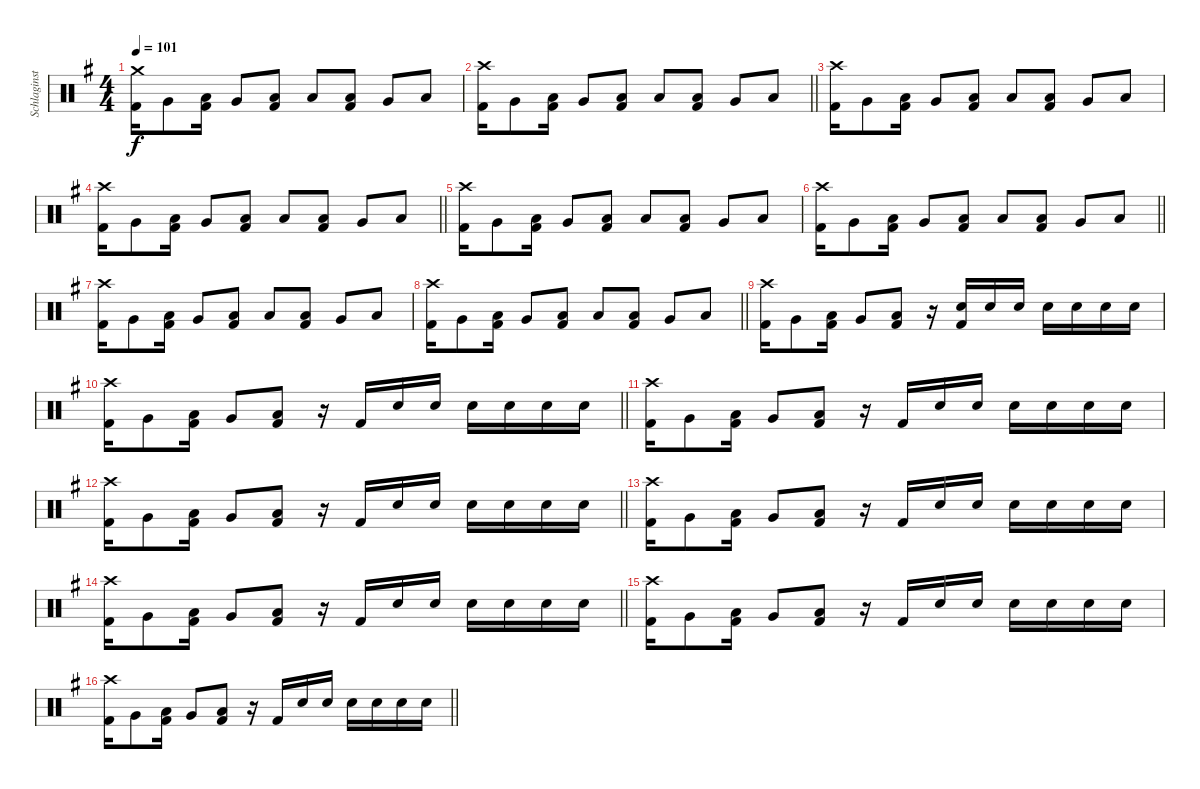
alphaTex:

\track ("Schlaginstrumente - Auswahl" "Schlaginst") {instrument percussion}
\staff {score}
\articulation defaults
\ts (4 4)
\tempo 101
\clef neutral
\ks g
("Crash medium (hit)" "Kick (hit) 2").16{dy f} "Very Low Tom (hit)".8 ("Low Floor Tom (hit)" "Kick (hit) 2").16 "Very Low Tom (hit)".8 ("Low Floor Tom (hit)" "Kick (hit) 2").8 "Low Floor Tom (hit)".8 ("Low Floor Tom (hit)" "Kick (hit) 2").8 "Very Low Tom (hit)".8 "Low Floor Tom (hit)".8 |
\barLineRight lightlight
("Crash high (hit)" "Kick (hit) 2").16 "Very Low Tom (hit)".8 ("Low Floor Tom (hit)" "Kick (hit) 2").16 "Very Low Tom (hit)".8 ("Low Floor Tom (hit)" "Kick (hit) 2").8 "Low Floor Tom (hit)".8 ("Low Floor Tom (hit)" "Kick (hit) 2").8 "Very Low Tom (hit)".8 "Low Floor Tom (hit)".8 |
("Crash high (hit)" "Kick (hit) 2").16 "Very Low Tom (hit)".8 ("Low Floor Tom (hit)" "Kick (hit) 2").16 "Very Low Tom (hit)".8 ("Low Floor Tom (hit)" "Kick (hit) 2").8 "Low Floor Tom (hit)".8 ("Low Floor Tom (hit)" "Kick (hit) 2").8 "Very Low Tom (hit)".8 "Low Floor Tom (hit)".8 |
\barLineRight lightlight
("Crash high (hit)" "Kick (hit) 2").16 "Very Low Tom (hit)".8 ("Low Floor Tom (hit)" "Kick (hit) 2").16 "Very Low Tom (hit)".8 ("Low Floor Tom (hit)" "Kick (hit) 2").8 "Low Floor Tom (hit)".8 ("Low Floor Tom (hit)" "Kick (hit) 2").8 "Very Low Tom (hit)".8 "Low Floor Tom (hit)".8 |
("Crash high (hit)" "Kick (hit) 2").16 "Very Low Tom (hit)".8 ("Low Floor Tom (hit)" "Kick (hit) 2").16 "Very Low Tom (hit)".8 ("Low Floor Tom (hit)" "Kick (hit) 2").8 "Low Floor Tom (hit)".8 ("Low Floor Tom (hit)" "Kick (hit) 2").8 "Very Low Tom (hit)".8 "Low Floor Tom (hit)".8 |
\barLineRight lightlight
("Crash high (hit)" "Kick (hit) 2").16 "Very Low Tom (hit)".8 ("Low Floor Tom (hit)" "Kick (hit) 2").16 "Very Low Tom (hit)".8 ("Low Floor Tom (hit)" "Kick (hit) 2").8 "Low Floor Tom (hit)".8 ("Low Floor Tom (hit)" "Kick (hit) 2").8 "Very Low Tom (hit)".8 "Low Floor Tom (hit)".8 |
("Crash high (hit)" "Kick (hit) 2").16 "Very Low Tom (hit)".8 ("Low Floor Tom (hit)" "Kick (hit) 2").16 "Very Low Tom (hit)".8 ("Low Floor Tom (hit)" "Kick (hit) 2").8 "Low Floor Tom (hit)".8 ("Low Floor Tom (hit)" "Kick (hit) 2").8 "Very Low Tom (hit)".8 "Low Floor Tom (hit)".8 |
\barLineRight lightlight
("Crash high (hit)" "Kick (hit) 2").16 "Very Low Tom (hit)".8 ("Low Floor Tom (hit)" "Kick (hit) 2").16 "Very Low Tom (hit)".8 ("Low Floor Tom (hit)" "Kick (hit) 2").8 "Low Floor Tom (hit)".8 ("Low Floor Tom (hit)" "Kick (hit) 2").8 "Very Low Tom (hit)".8 "Low Floor Tom (hit)".8 |
("Crash high (hit)" "Kick (hit) 2").16 "Very Low Tom (hit)".8 ("Low Floor Tom (hit)" "Kick (hit) 2").16 "Very Low Tom (hit)".8 ("Low Floor Tom (hit)" "Kick (hit) 2").8 r.16 ("Electric Snare (hit)" "Kick (hit) 2").16 "Electric Snare (hit)".16 "Electric Snare (hit)".16 "Electric Snare (hit)".16 "Electric Snare (hit)".16 "Electric Snare (hit)".16 "Electric Snare (hit)".16 |
\barLineRight lightlight
("Crash high (hit)" "Kick (hit) 2").16 "Very Low Tom (hit)".8 ("Low Floor Tom (hit)" "Kick (hit) 2").16 "Very Low Tom (hit)".8 ("Low Floor Tom (hit)" "Kick (hit) 2").8 r.16 "Kick (hit) 2".16 "Electric Snare (hit)".16 "Electric Snare (hit)".16 "Electric Snare (hit)".16 "Electric Snare (hit)".16 "Electric Snare (hit)".16 "Electric Snare (hit)".16 |
("Crash high (hit)" "Kick (hit) 2").16 "Very Low Tom (hit)".8 ("Low Floor Tom (hit)" "Kick (hit) 2").16 "Very Low Tom (hit)".8 ("Low Floor Tom (hit)" "Kick (hit) 2").8 r.16 "Kick (hit) 2".16 "Electric Snare (hit)".16 "Electric Snare (hit)".16 "Electric Snare (hit)".16 "Electric Snare (hit)".16 "Electric Snare (hit)".16 "Electric Snare (hit)".16 |
\barLineRight lightlight
("Crash high (hit)" "Kick (hit) 2").16 "Very Low Tom (hit)".8 ("Low Floor Tom (hit)" "Kick (hit) 2").16 "Very Low Tom (hit)".8 ("Low Floor Tom (hit)" "Kick (hit) 2").8 r.16 "Kick (hit) 2".16 "Electric Snare (hit)".16 "Electric Snare (hit)".16 "Electric Snare (hit)".16 "Electric Snare (hit)".16 "Electric Snare (hit)".16 "Electric Snare (hit)".16 |
("Crash high (hit)" "Kick (hit) 2").16 "Very Low Tom (hit)".8 ("Low Floor Tom (hit)" "Kick (hit) 2").16 "Very Low Tom (hit)".8 ("Low Floor Tom (hit)" "Kick (hit) 2").8 r.16 "Kick (hit) 2".16 "Electric Snare (hit)".16 "Electric Snare (hit)".16 "Electric Snare (hit)".16 "Electric Snare (hit)".16 "Electric Snare (hit)".16 "Electric Snare (hit)".16 |
\barLineRight lightlight
("Crash high (hit)" "Kick (hit) 2").16 "Very Low Tom (hit)".8 ("Low Floor Tom (hit)" "Kick (hit) 2").16 "Very Low Tom (hit)".8 ("Low Floor Tom (hit)" "Kick (hit) 2").8 r.16 "Kick (hit) 2".16 "Electric Snare (hit)".16 "Electric Snare (hit)".16 "Electric Snare (hit)".16 "Electric Snare (hit)".16 "Electric Snare (hit)".16 "Electric Snare (hit)".16 |
("Crash high (hit)" "Kick (hit) 2").16 "Very Low Tom (hit)".8 ("Low Floor Tom (hit)" "Kick (hit) 2").16 "Very Low Tom (hit)".8 ("Low Floor Tom (hit)" "Kick (hit) 2").8 r.16 "Kick (hit) 2".16 "Electric Snare (hit)".16 "Electric Snare (hit)".16 "Electric Snare (hit)".16 "Electric Snare (hit)".16 "Electric Snare (hit)".16 "Electric Snare (hit)".16 |
\barLineRight lightlight
("Crash high (hit)" "Kick (hit) 2").16 "Very Low Tom (hit)".8 ("Low Floor Tom (hit)" "Kick (hit) 2").16 "Very Low Tom (hit)".8 ("Low Floor Tom (hit)" "Kick (hit) 2").8 r.16 "Kick (hit) 2".16 "Electric Snare (hit)".16 "Electric Snare (hit)".16 "Electric Snare (hit)".16 "Electric Snare (hit)".16 "Electric Snare (hit)".16 "Electric Snare (hit)".16
